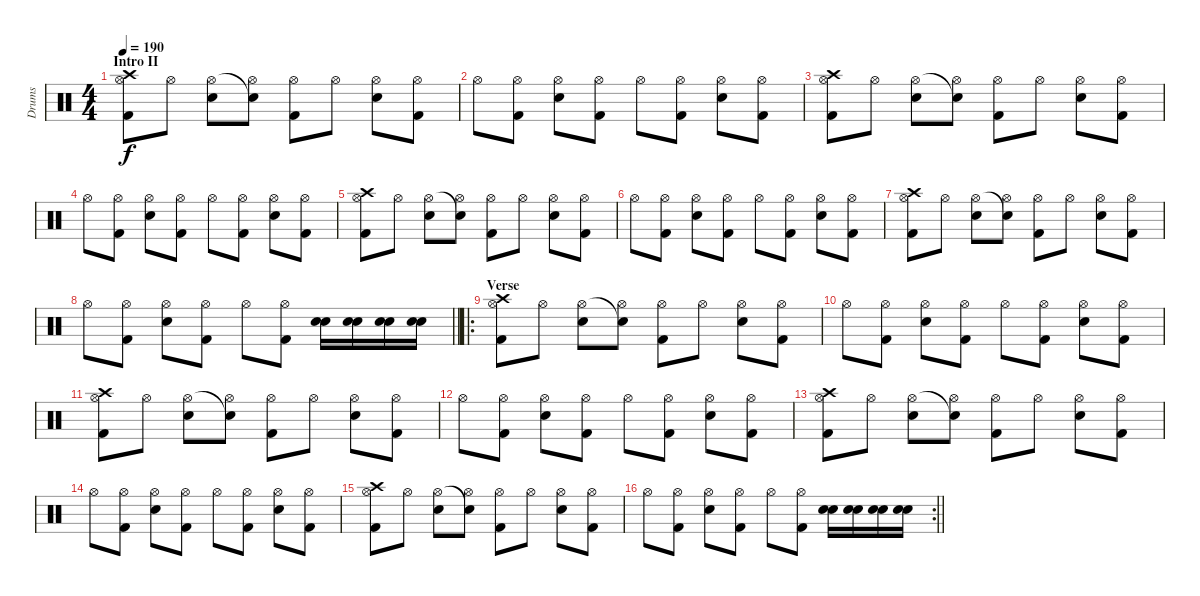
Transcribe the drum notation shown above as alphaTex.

\track ("Drums" "Drums") {instrument percussion}
\staff {score}
\articulation defaults
\ts (4 4)
\section ("" "Intro II")
\tempo 190
\clef neutral
\ks c
("Crash high (hit)" "Hi-Hat (open)" "Kick (hit) 2").8{dy f} "Hi-Hat (open)".8 ("Hi-Hat (open)" "Electric Snare (hit)").8 ("Snare (hit)"{t} "Hi-Hat (open)").8 ("Hi-Hat (open)" "Kick (hit) 2").8 "Hi-Hat (open)".8 ("Hi-Hat (open)" "Electric Snare (hit)").8 ("Hi-Hat (open)" "Kick (hit) 2").8 |
"Hi-Hat (open)".8 ("Hi-Hat (open)" "Kick (hit) 2").8 ("Hi-Hat (open)" "Electric Snare (hit)").8 ("Hi-Hat (open)" "Kick (hit) 2").8 "Hi-Hat (open)".8 ("Hi-Hat (open)" "Kick (hit) 2").8 ("Hi-Hat (open)" "Electric Snare (hit)").8 ("Hi-Hat (open)" "Kick (hit) 2").8 |
("Crash high (hit)" "Hi-Hat (open)" "Kick (hit) 2").8 "Hi-Hat (open)".8 ("Hi-Hat (open)" "Electric Snare (hit)").8 ("Snare (hit)"{t} "Hi-Hat (open)").8 ("Hi-Hat (open)" "Kick (hit) 2").8 "Hi-Hat (open)".8 ("Hi-Hat (open)" "Electric Snare (hit)").8 ("Hi-Hat (open)" "Kick (hit) 2").8 |
"Hi-Hat (open)".8 ("Hi-Hat (open)" "Kick (hit) 2").8 ("Hi-Hat (open)" "Electric Snare (hit)").8 ("Hi-Hat (open)" "Kick (hit) 2").8 "Hi-Hat (open)".8 ("Hi-Hat (open)" "Kick (hit) 2").8 ("Hi-Hat (open)" "Electric Snare (hit)").8 ("Hi-Hat (open)" "Kick (hit) 2").8 |
("Crash high (hit)" "Hi-Hat (open)" "Kick (hit) 2").8 "Hi-Hat (open)".8 ("Hi-Hat (open)" "Electric Snare (hit)").8 ("Snare (hit)"{t} "Hi-Hat (open)").8 ("Hi-Hat (open)" "Kick (hit) 2").8 "Hi-Hat (open)".8 ("Hi-Hat (open)" "Electric Snare (hit)").8 ("Hi-Hat (open)" "Kick (hit) 2").8 |
"Hi-Hat (open)".8 ("Hi-Hat (open)" "Kick (hit) 2").8 ("Hi-Hat (open)" "Electric Snare (hit)").8 ("Hi-Hat (open)" "Kick (hit) 2").8 "Hi-Hat (open)".8 ("Hi-Hat (open)" "Kick (hit) 2").8 ("Hi-Hat (open)" "Electric Snare (hit)").8 ("Hi-Hat (open)" "Kick (hit) 2").8 |
("Crash high (hit)" "Hi-Hat (open)" "Kick (hit) 2").8 "Hi-Hat (open)".8 ("Hi-Hat (open)" "Electric Snare (hit)").8 ("Snare (hit)"{t} "Hi-Hat (open)").8 ("Hi-Hat (open)" "Kick (hit) 2").8 "Hi-Hat (open)".8 ("Hi-Hat (open)" "Electric Snare (hit)").8 ("Hi-Hat (open)" "Kick (hit) 2").8 |
\barLineRight lightlight "Hi-Hat (open)".8
("Hi-Hat (open)" "Kick (hit) 2").8 ("Hi-Hat (open)" "Electric Snare (hit)").8 ("Hi-Hat (open)" "Kick (hit) 2").8 "Hi-Hat (open)".8 ("Hi-Hat (open)" "Kick (hit) 2").8 ("Snare (hit) 2" "Electric Snare (hit)").16 ("Snare (hit) 2" "Electric Snare (hit)").16 ("Snare (hit) 2" "Electric Snare (hit)").16 ("Snare (hit) 2" "Electric Snare (hit)").16 |
\ro
\section ("" "Verse")
("Crash high (hit)" "Hi-Hat (open)" "Kick (hit) 2").8 "Hi-Hat (open)".8 ("Hi-Hat (open)" "Electric Snare (hit)").8 ("Snare (hit)"{t} "Hi-Hat (open)").8 ("Hi-Hat (open)" "Kick (hit) 2").8 "Hi-Hat (open)".8 ("Hi-Hat (open)" "Electric Snare (hit)").8 ("Hi-Hat (open)" "Kick (hit) 2").8 |
"Hi-Hat (open)".8 ("Hi-Hat (open)" "Kick (hit) 2").8 ("Hi-Hat (open)" "Electric Snare (hit)").8 ("Hi-Hat (open)" "Kick (hit) 2").8 "Hi-Hat (open)".8 ("Hi-Hat (open)" "Kick (hit) 2").8 ("Hi-Hat (open)" "Electric Snare (hit)").8 ("Hi-Hat (open)" "Kick (hit) 2").8 |
("Crash high (hit)" "Hi-Hat (open)" "Kick (hit) 2").8 "Hi-Hat (open)".8 ("Hi-Hat (open)" "Electric Snare (hit)").8 ("Snare (hit)"{t} "Hi-Hat (open)").8 ("Hi-Hat (open)" "Kick (hit) 2").8 "Hi-Hat (open)".8 ("Hi-Hat (open)" "Electric Snare (hit)").8 ("Hi-Hat (open)" "Kick (hit) 2").8 |
"Hi-Hat (open)".8 ("Hi-Hat (open)" "Kick (hit) 2").8 ("Hi-Hat (open)" "Electric Snare (hit)").8 ("Hi-Hat (open)" "Kick (hit) 2").8 "Hi-Hat (open)".8 ("Hi-Hat (open)" "Kick (hit) 2").8 ("Hi-Hat (open)" "Electric Snare (hit)").8 ("Hi-Hat (open)" "Kick (hit) 2").8 |
("Crash high (hit)" "Hi-Hat (open)" "Kick (hit) 2").8 "Hi-Hat (open)".8 ("Hi-Hat (open)" "Electric Snare (hit)").8 ("Snare (hit)"{t} "Hi-Hat (open)").8 ("Hi-Hat (open)" "Kick (hit) 2").8 "Hi-Hat (open)".8 ("Hi-Hat (open)" "Electric Snare (hit)").8 ("Hi-Hat (open)" "Kick (hit) 2").8 |
"Hi-Hat (open)".8 ("Hi-Hat (open)" "Kick (hit) 2").8 ("Hi-Hat (open)" "Electric Snare (hit)").8 ("Hi-Hat (open)" "Kick (hit) 2").8 "Hi-Hat (open)".8 ("Hi-Hat (open)" "Kick (hit) 2").8 ("Hi-Hat (open)" "Electric Snare (hit)").8 ("Hi-Hat (open)" "Kick (hit) 2").8 |
("Crash high (hit)" "Hi-Hat (open)" "Kick (hit) 2").8 "Hi-Hat (open)".8 ("Hi-Hat (open)" "Electric Snare (hit)").8 ("Snare (hit)"{t} "Hi-Hat (open)").8 ("Hi-Hat (open)" "Kick (hit) 2").8 "Hi-Hat (open)".8 ("Hi-Hat (open)" "Electric Snare (hit)").8 ("Hi-Hat (open)" "Kick (hit) 2").8 |
\rc 2
\barLineRight lightlight "Hi-Hat (open)".8
("Hi-Hat (open)" "Kick (hit) 2").8 ("Hi-Hat (open)" "Electric Snare (hit)").8 ("Hi-Hat (open)" "Kick (hit) 2").8 "Hi-Hat (open)".8 ("Hi-Hat (open)" "Kick (hit) 2").8 ("Snare (hit) 2" "Electric Snare (hit)").16 ("Snare (hit) 2" "Electric Snare (hit)").16 ("Snare (hit) 2" "Electric Snare (hit)").16 ("Snare (hit) 2" "Electric Snare (hit)").16
